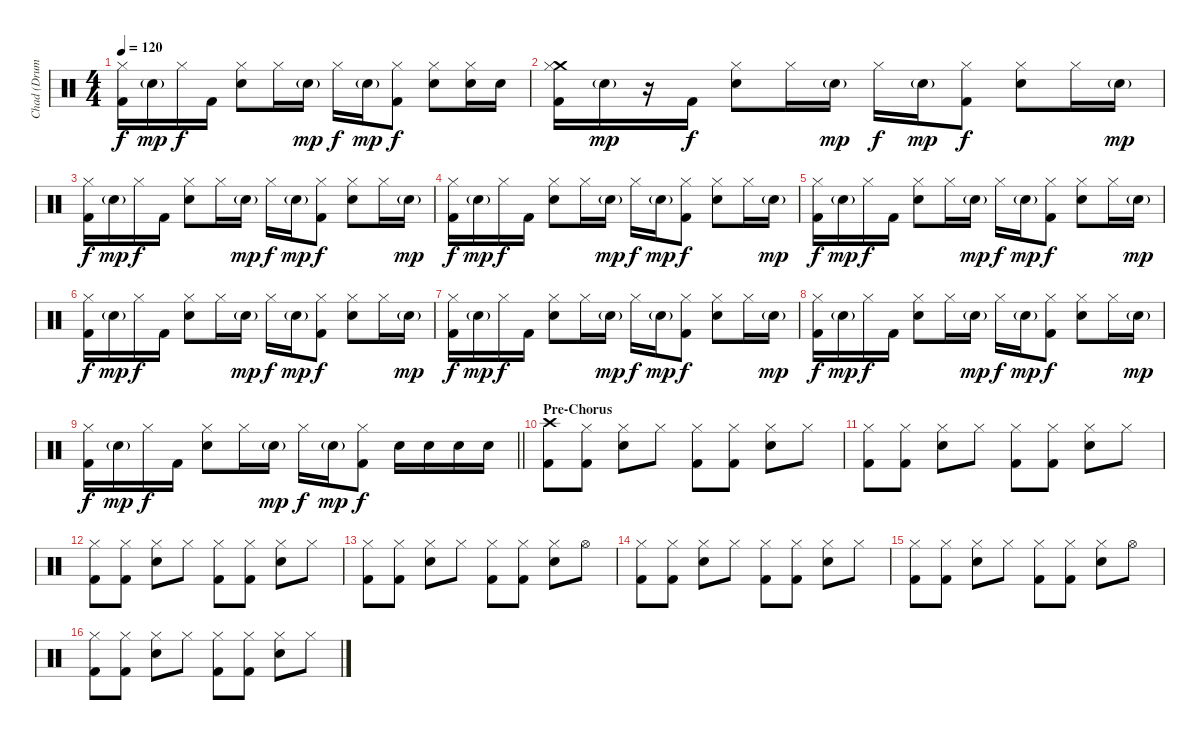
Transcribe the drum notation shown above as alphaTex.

\track ("Chad (Drums)" "Chad (Drum") {instrument percussion}
\staff {score}
\articulation defaults
\ts (4 4)
\tempo 120
\clef neutral
\ks c
("Hi-Hat (closed)" "Kick (hit) 2").16{dy f} "Electric Snare (hit)"{g}.16{dy mp} "Hi-Hat (closed)".16{dy f} "Kick (hit) 2".16 ("Hi-Hat (closed)" "Electric Snare (hit)").8 "Hi-Hat (closed)".16 "Electric Snare (hit)"{g}.16{dy mp} "Hi-Hat (closed)".16{dy f} "Electric Snare (hit)"{g}.16{dy mp} ("Hi-Hat (closed)" "Kick (hit) 2").8{dy f} ("Hi-Hat (closed)" "Electric Snare (hit)").8 ("Hi-Hat (closed)" "Electric Snare (hit)").16 "Electric Snare (hit)".16 |
("Crash medium (hit)" "Hi-Hat (closed)" "Kick (hit) 2").16 "Electric Snare (hit)"{g}.16{dy mp} r.16 "Kick (hit) 2".16{dy f} ("Hi-Hat (closed)" "Electric Snare (hit)").8 "Hi-Hat (closed)".16 "Electric Snare (hit)"{g}.16{dy mp} "Hi-Hat (closed)".16{dy f} "Electric Snare (hit)"{g}.16{dy mp} ("Hi-Hat (closed)" "Kick (hit) 2").8{dy f} ("Hi-Hat (closed)" "Electric Snare (hit)").8 "Hi-Hat (closed)".16 "Electric Snare (hit)"{g}.16{dy mp} |
("Hi-Hat (closed)" "Kick (hit) 2").16{dy f} "Electric Snare (hit)"{g}.16{dy mp} "Hi-Hat (closed)".16{dy f} "Kick (hit) 2".16 ("Hi-Hat (closed)" "Electric Snare (hit)").8 "Hi-Hat (closed)".16 "Electric Snare (hit)"{g}.16{dy mp} "Hi-Hat (closed)".16{dy f} "Electric Snare (hit)"{g}.16{dy mp} ("Hi-Hat (closed)" "Kick (hit) 2").8{dy f} ("Hi-Hat (closed)" "Electric Snare (hit)").8 "Hi-Hat (closed)".16 "Electric Snare (hit)"{g}.16{dy mp} |
("Hi-Hat (closed)" "Kick (hit) 2").16{dy f} "Electric Snare (hit)"{g}.16{dy mp} "Hi-Hat (closed)".16{dy f} "Kick (hit) 2".16 ("Hi-Hat (closed)" "Electric Snare (hit)").8 "Hi-Hat (closed)".16 "Electric Snare (hit)"{g}.16{dy mp} "Hi-Hat (closed)".16{dy f} "Electric Snare (hit)"{g}.16{dy mp} ("Hi-Hat (closed)" "Kick (hit) 2").8{dy f} ("Hi-Hat (closed)" "Electric Snare (hit)").8 "Hi-Hat (closed)".16 "Electric Snare (hit)"{g}.16{dy mp} |
("Hi-Hat (closed)" "Kick (hit) 2").16{dy f} "Electric Snare (hit)"{g}.16{dy mp} "Hi-Hat (closed)".16{dy f} "Kick (hit) 2".16 ("Hi-Hat (closed)" "Electric Snare (hit)").8 "Hi-Hat (closed)".16 "Electric Snare (hit)"{g}.16{dy mp} "Hi-Hat (closed)".16{dy f} "Electric Snare (hit)"{g}.16{dy mp} ("Hi-Hat (closed)" "Kick (hit) 2").8{dy f} ("Hi-Hat (closed)" "Electric Snare (hit)").8 "Hi-Hat (closed)".16 "Electric Snare (hit)"{g}.16{dy mp} |
("Hi-Hat (closed)" "Kick (hit) 2").16{dy f} "Electric Snare (hit)"{g}.16{dy mp} "Hi-Hat (closed)".16{dy f} "Kick (hit) 2".16 ("Hi-Hat (closed)" "Electric Snare (hit)").8 "Hi-Hat (closed)".16 "Electric Snare (hit)"{g}.16{dy mp} "Hi-Hat (closed)".16{dy f} "Electric Snare (hit)"{g}.16{dy mp} ("Hi-Hat (closed)" "Kick (hit) 2").8{dy f} ("Hi-Hat (closed)" "Electric Snare (hit)").8 "Hi-Hat (closed)".16 "Electric Snare (hit)"{g}.16{dy mp} |
("Hi-Hat (closed)" "Kick (hit) 2").16{dy f} "Electric Snare (hit)"{g}.16{dy mp} "Hi-Hat (closed)".16{dy f} "Kick (hit) 2".16 ("Hi-Hat (closed)" "Electric Snare (hit)").8 "Hi-Hat (closed)".16 "Electric Snare (hit)"{g}.16{dy mp} "Hi-Hat (closed)".16{dy f} "Electric Snare (hit)"{g}.16{dy mp} ("Hi-Hat (closed)" "Kick (hit) 2").8{dy f} ("Hi-Hat (closed)" "Electric Snare (hit)").8 "Hi-Hat (closed)".16 "Electric Snare (hit)"{g}.16{dy mp} |
("Hi-Hat (closed)" "Kick (hit) 2").16{dy f} "Electric Snare (hit)"{g}.16{dy mp} "Hi-Hat (closed)".16{dy f} "Kick (hit) 2".16 ("Hi-Hat (closed)" "Electric Snare (hit)").8 "Hi-Hat (closed)".16 "Electric Snare (hit)"{g}.16{dy mp} "Hi-Hat (closed)".16{dy f} "Electric Snare (hit)"{g}.16{dy mp} ("Hi-Hat (closed)" "Kick (hit) 2").8{dy f} ("Hi-Hat (closed)" "Electric Snare (hit)").8 "Hi-Hat (closed)".16 "Electric Snare (hit)"{g}.16{dy mp} |
\barLineRight lightlight
("Hi-Hat (closed)" "Kick (hit) 2").16{dy f} "Electric Snare (hit)"{g}.16{dy mp} "Hi-Hat (closed)".16{dy f} "Kick (hit) 2".16 ("Hi-Hat (closed)" "Electric Snare (hit)").8 "Hi-Hat (closed)".16 "Electric Snare (hit)"{g}.16{dy mp} "Hi-Hat (closed)".16{dy f} "Electric Snare (hit)"{g}.16{dy mp} ("Hi-Hat (closed)" "Kick (hit) 2").8{dy f} "Electric Snare (hit)".16 "Electric Snare (hit)".16 "Electric Snare (hit)".16 "Electric Snare (hit)".16 |
\section ("" "Pre-Chorus")
("Crash high (hit)" "Kick (hit) 2").8 ("Hi-Hat (closed)" "Kick (hit) 2").8 ("Hi-Hat (closed)" "Electric Snare (hit)").8 "Hi-Hat (closed)".8 ("Hi-Hat (closed)" "Kick (hit) 2").8 ("Hi-Hat (closed)" "Kick (hit) 2").8 ("Hi-Hat (closed)" "Electric Snare (hit)").8 "Hi-Hat (closed)".8 |
("Hi-Hat (closed)" "Kick (hit) 2").8 ("Hi-Hat (closed)" "Kick (hit) 2").8 ("Hi-Hat (closed)" "Electric Snare (hit)").8 "Hi-Hat (closed)".8 ("Hi-Hat (closed)" "Kick (hit) 2").8 ("Hi-Hat (closed)" "Kick (hit) 2").8 ("Hi-Hat (closed)" "Electric Snare (hit)").8 "Hi-Hat (closed)".8 |
("Hi-Hat (closed)" "Kick (hit) 2").8 ("Hi-Hat (closed)" "Kick (hit) 2").8 ("Hi-Hat (closed)" "Electric Snare (hit)").8 "Hi-Hat (closed)".8 ("Hi-Hat (closed)" "Kick (hit) 2").8 ("Hi-Hat (closed)" "Kick (hit) 2").8 ("Hi-Hat (closed)" "Electric Snare (hit)").8 "Hi-Hat (closed)".8 |
("Hi-Hat (closed)" "Kick (hit) 2").8 ("Hi-Hat (closed)" "Kick (hit) 2").8 ("Hi-Hat (closed)" "Electric Snare (hit)").8 "Hi-Hat (closed)".8 ("Hi-Hat (closed)" "Kick (hit) 2").8 ("Hi-Hat (closed)" "Kick (hit) 2").8 ("Hi-Hat (closed)" "Electric Snare (hit)").8 "Hi-Hat (open)".8 |
("Hi-Hat (closed)" "Kick (hit) 2").8 ("Hi-Hat (closed)" "Kick (hit) 2").8 ("Hi-Hat (closed)" "Electric Snare (hit)").8 "Hi-Hat (closed)".8 ("Hi-Hat (closed)" "Kick (hit) 2").8 ("Hi-Hat (closed)" "Kick (hit) 2").8 ("Hi-Hat (closed)" "Electric Snare (hit)").8 "Hi-Hat (closed)".8 |
("Hi-Hat (closed)" "Kick (hit) 2").8 ("Hi-Hat (closed)" "Kick (hit) 2").8 ("Hi-Hat (closed)" "Electric Snare (hit)").8 "Hi-Hat (closed)".8 ("Hi-Hat (closed)" "Kick (hit) 2").8 ("Hi-Hat (closed)" "Kick (hit) 2").8 ("Hi-Hat (closed)" "Electric Snare (hit)").8 "Hi-Hat (open)".8 |
("Hi-Hat (closed)" "Kick (hit) 2").8 ("Hi-Hat (closed)" "Kick (hit) 2").8 ("Hi-Hat (closed)" "Electric Snare (hit)").8 "Hi-Hat (closed)".8 ("Hi-Hat (closed)" "Kick (hit) 2").8 ("Hi-Hat (closed)" "Kick (hit) 2").8 ("Hi-Hat (closed)" "Electric Snare (hit)").8 "Hi-Hat (closed)".8
